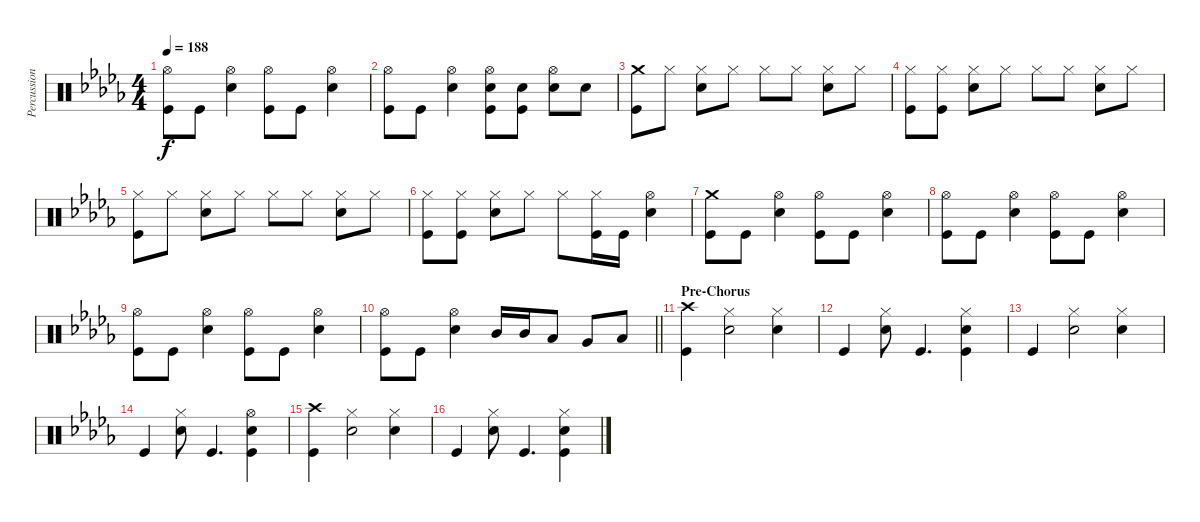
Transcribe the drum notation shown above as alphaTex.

\track ("Percussion" "Percussion") {instrument percussion}
\staff {score}
\articulation defaults
\ts (4 4)
\tempo 188
\clef neutral
\ks db
("Hi-Hat (open)" "Kick (hit)").8{dy f} "Kick (hit)".8 ("Hi-Hat (open)" "Electric Snare (hit)").4 ("Hi-Hat (open)" "Kick (hit)").8 "Kick (hit)".8 ("Hi-Hat (open)" "Electric Snare (hit)").4 |
("Hi-Hat (open)" "Kick (hit)").8 "Kick (hit)".8 ("Hi-Hat (open)" "Electric Snare (hit)").4 ("Hi-Hat (open)" "Electric Snare (hit)" "Kick (hit)").8 ("Electric Snare (hit)" "Kick (hit)").8 ("Hi-Hat (open)" "Electric Snare (hit)").8 "Electric Snare (hit)".8 |
("Crash medium (hit)" "Kick (hit)").8 "Hi-Hat (closed)".8 ("Hi-Hat (closed)" "Electric Snare (hit)").8 "Hi-Hat (closed)".8 "Hi-Hat (closed)".8 "Hi-Hat (closed)".8 ("Hi-Hat (closed)" "Electric Snare (hit)").8 "Hi-Hat (closed)".8 |
("Hi-Hat (closed)" "Kick (hit)").8 ("Hi-Hat (closed)" "Kick (hit)").8 ("Hi-Hat (closed)" "Electric Snare (hit)").8 "Hi-Hat (closed)".8 "Hi-Hat (closed)".8 "Hi-Hat (closed)".8 ("Hi-Hat (closed)" "Electric Snare (hit)").8 "Hi-Hat (closed)".8 |
("Hi-Hat (closed)" "Kick (hit)").8 "Hi-Hat (closed)".8 ("Hi-Hat (closed)" "Electric Snare (hit)").8 "Hi-Hat (closed)".8 "Hi-Hat (closed)".8 "Hi-Hat (closed)".8 ("Hi-Hat (closed)" "Electric Snare (hit)").8 "Hi-Hat (closed)".8 |
("Hi-Hat (closed)" "Kick (hit)").8 ("Hi-Hat (closed)" "Kick (hit)").8 ("Hi-Hat (closed)" "Electric Snare (hit)").8 "Hi-Hat (closed)".8 "Hi-Hat (closed)".8 ("Hi-Hat (closed)" "Kick (hit)").16 "Kick (hit)".16 ("Hi-Hat (open)" "Electric Snare (hit)").4 |
("Crash medium (hit)" "Kick (hit)").8 "Kick (hit)".8 ("Hi-Hat (open)" "Electric Snare (hit)").4 ("Hi-Hat (open)" "Kick (hit)").8 "Kick (hit)".8 ("Hi-Hat (open)" "Electric Snare (hit)").4 |
("Hi-Hat (open)" "Kick (hit)").8 "Kick (hit)".8 ("Hi-Hat (open)" "Electric Snare (hit)").4 ("Hi-Hat (open)" "Kick (hit)").8 "Kick (hit)".8 ("Hi-Hat (open)" "Electric Snare (hit)").4 |
("Hi-Hat (open)" "Kick (hit)").8 "Kick (hit)".8 ("Hi-Hat (open)" "Electric Snare (hit)").4 ("Hi-Hat (open)" "Kick (hit)").8 "Kick (hit)".8 ("Hi-Hat (open)" "Electric Snare (hit)").4 |
\barLineRight lightlight
("Hi-Hat (open)" "Kick (hit)").8 "Kick (hit)".8 ("Hi-Hat (open)" "Electric Snare (hit)").4 "Mid Tom (hit)".16 "Mid Tom (hit)".16 "Low Tom (hit)".8 "Very Low Tom (hit)".8 "Low Floor Tom (hit)".8 |
\section ("" "Pre-Chorus")
("Crash high (hit)" "Kick (hit)").4 ("Hi-Hat (closed)" "Electric Snare (hit)").2 ("Hi-Hat (closed)" "Electric Snare (hit)").4 |
"Kick (hit)".4 ("Hi-Hat (closed)" "Electric Snare (hit)").8 "Kick (hit)".4{d} ("Hi-Hat (closed)" "Electric Snare (hit)" "Kick (hit)").4 |
"Kick (hit)".4 ("Hi-Hat (closed)" "Electric Snare (hit)").2 ("Hi-Hat (closed)" "Electric Snare (hit)").4 |
"Kick (hit)".4 ("Hi-Hat (closed)" "Electric Snare (hit)").8 "Kick (hit)".4{d} ("Hi-Hat (open)" "Electric Snare (hit)" "Kick (hit)").4 |
("Crash high (hit)" "Kick (hit)").4 ("Hi-Hat (closed)" "Electric Snare (hit)").2 ("Hi-Hat (closed)" "Electric Snare (hit)").4 |
"Kick (hit)".4 ("Hi-Hat (closed)" "Electric Snare (hit)").8 "Kick (hit)".4{d} ("Hi-Hat (closed)" "Electric Snare (hit)" "Kick (hit)").4
